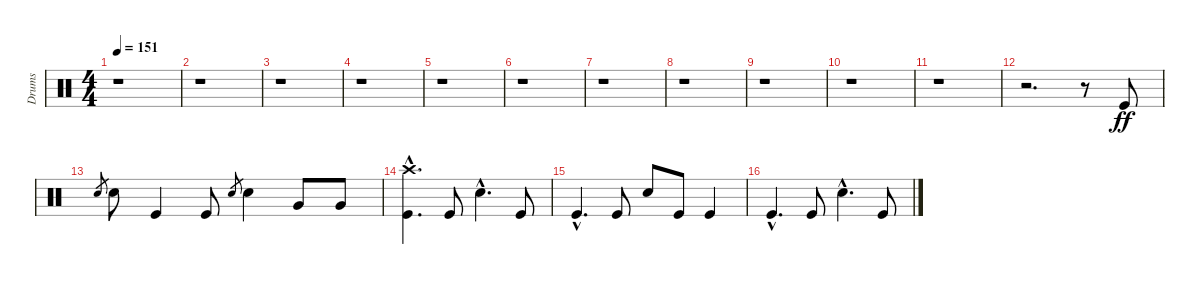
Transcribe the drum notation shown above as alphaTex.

\track ("Drums" "Drums") {instrument percussion}
\staff {score}
\articulation defaults
\ts (4 4)
\tempo 151
\clef neutral
\ks c
r.1{dy ff} |
r.1 |
r.1 |
r.1 |
r.1 |
r.1 |
r.1 |
r.1 |
r.1 |
r.1 |
r.1 |
r.2{d} r.8 "Kick (hit)".8 |
"Snare (hit) 2".8{gr} "Snare (hit) 2".8 "Kick (hit)".4 "Kick (hit)".8 "Snare (hit) 2".8{gr} "Snare (hit) 2".4 "Very Low Tom (hit)".8 "Very Low Tom (hit)".8 |
("Crash high (hit)"{hac} "Kick (hit)"{hac}).4{d} "Kick (hit)".8 "Snare (hit) 2"{hac}.4{d} "Kick (hit)".8 |
"Kick (hit)"{hac}.4{d} "Kick (hit)".8 "Snare (hit) 2".8 "Kick (hit)".8 "Kick (hit)".4 |
"Kick (hit)"{hac}.4{d} "Kick (hit)".8 "Snare (hit) 2"{hac}.4{d} "Kick (hit)".8
